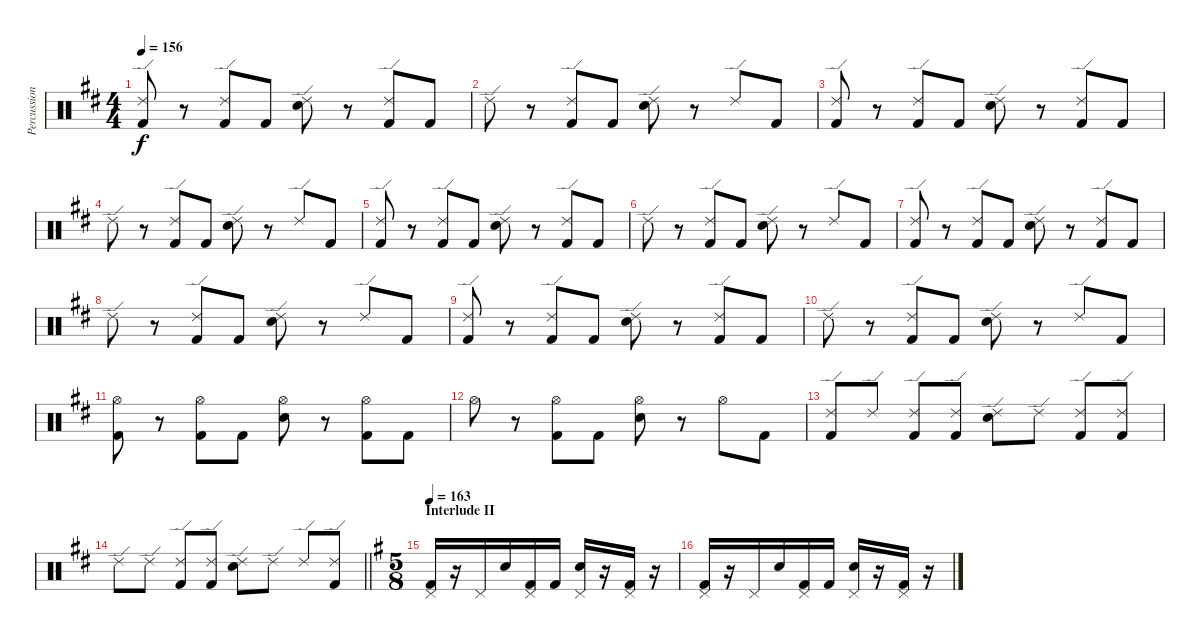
\track ("Percussion" "Percussion") {instrument percussion}
\staff {score}
\articulation defaults
\ts (4 4)
\tempo 156
\clef neutral
\ks d
("Ride (edge) 2" "Kick (hit) 2").8{dy f} r.8 ("Ride (edge) 2" "Kick (hit) 2").8 "Kick (hit) 2".8 ("Ride (edge) 2" "Electric Snare (hit)").8 r.8 ("Ride (edge) 2" "Kick (hit) 2").8 "Kick (hit) 2".8 |
"Ride (edge) 2".8 r.8 ("Ride (edge) 2" "Kick (hit) 2").8 "Kick (hit) 2".8 ("Ride (edge) 2" "Electric Snare (hit)").8 r.8 "Ride (edge) 2".8 "Kick (hit) 2".8 |
("Ride (edge) 2" "Kick (hit) 2").8 r.8 ("Ride (edge) 2" "Kick (hit) 2").8 "Kick (hit) 2".8 ("Ride (edge) 2" "Electric Snare (hit)").8 r.8 ("Ride (edge) 2" "Kick (hit) 2").8 "Kick (hit) 2".8 |
"Ride (edge) 2".8 r.8 ("Ride (edge) 2" "Kick (hit) 2").8 "Kick (hit) 2".8 ("Ride (edge) 2" "Electric Snare (hit)").8 r.8 "Ride (edge) 2".8 "Kick (hit) 2".8 |
("Ride (edge) 2" "Kick (hit) 2").8 r.8 ("Ride (edge) 2" "Kick (hit) 2").8 "Kick (hit) 2".8 ("Ride (edge) 2" "Electric Snare (hit)").8 r.8 ("Ride (edge) 2" "Kick (hit) 2").8 "Kick (hit) 2".8 |
"Ride (edge) 2".8 r.8 ("Ride (edge) 2" "Kick (hit) 2").8 "Kick (hit) 2".8 ("Ride (edge) 2" "Electric Snare (hit)").8 r.8 "Ride (edge) 2".8 "Kick (hit) 2".8 |
("Ride (edge) 2" "Kick (hit) 2").8 r.8 ("Ride (edge) 2" "Kick (hit) 2").8 "Kick (hit) 2".8 ("Ride (edge) 2" "Electric Snare (hit)").8 r.8 ("Ride (edge) 2" "Kick (hit) 2").8 "Kick (hit) 2".8 |
"Ride (edge) 2".8 r.8 ("Ride (edge) 2" "Kick (hit) 2").8 "Kick (hit) 2".8 ("Ride (edge) 2" "Electric Snare (hit)").8 r.8 "Ride (edge) 2".8 "Kick (hit) 2".8 |
("Ride (edge) 2" "Kick (hit) 2").8 r.8 ("Ride (edge) 2" "Kick (hit) 2").8 "Kick (hit) 2".8 ("Ride (edge) 2" "Electric Snare (hit)").8 r.8 ("Ride (edge) 2" "Kick (hit) 2").8 "Kick (hit) 2".8 |
"Ride (edge) 2".8 r.8 ("Ride (edge) 2" "Kick (hit) 2").8 "Kick (hit) 2".8 ("Ride (edge) 2" "Electric Snare (hit)").8 r.8 "Ride (edge) 2".8 "Kick (hit) 2".8 |
("Hi-Hat (open)" "Kick (hit) 2").8 r.8 ("Hi-Hat (open)" "Kick (hit) 2").8 "Kick (hit) 2".8 ("Hi-Hat (open)" "Electric Snare (hit)").8 r.8 ("Hi-Hat (open)" "Kick (hit) 2").8 "Kick (hit) 2".8 |
"Hi-Hat (open)".8 r.8 ("Hi-Hat (open)" "Kick (hit) 2").8 "Kick (hit) 2".8 ("Hi-Hat (open)" "Electric Snare (hit)").8 r.8 "Hi-Hat (open)".8 "Kick (hit) 2".8 |
("Ride (edge) 2" "Kick (hit) 2").8 "Ride (edge) 2".8 ("Ride (edge) 2" "Kick (hit) 2").8 ("Ride (edge) 2" "Kick (hit) 2").8 ("Ride (edge) 2" "Electric Snare (hit)").8 "Ride (edge) 2".8 ("Ride (edge) 2" "Kick (hit) 2").8 ("Ride (edge) 2" "Kick (hit) 2").8 |
\barLineRight lightlight "Ride (edge) 2".8 "Ride (edge) 2".8
("Ride (edge) 2" "Kick (hit) 2").8 ("Ride (edge) 2" "Kick (hit) 2").8 ("Ride (edge) 2" "Electric Snare (hit)").8 "Ride (edge) 2".8 "Ride (edge) 2".8 ("Ride (edge) 2" "Kick (hit) 2").8 |
\ts (5 8)
\section ("" "Interlude II")
\tempo 163
\ks g
("Pedal Hi-Hat (hit)" "Kick (hit) 2").16 r.16 "Pedal Hi-Hat (hit)".16 "Electric Snare (hit)".16 ("Pedal Hi-Hat (hit)" "Kick (hit) 2").16 "Kick (hit) 2".16 ("Pedal Hi-Hat (hit)" "Electric Snare (hit)").16 r.16 ("Pedal Hi-Hat (hit)" "Kick (hit) 2").16 r.16 |
("Pedal Hi-Hat (hit)" "Kick (hit) 2").16 r.16 "Pedal Hi-Hat (hit)".16 "Electric Snare (hit)".16 ("Pedal Hi-Hat (hit)" "Kick (hit) 2").16 "Kick (hit) 2".16 ("Pedal Hi-Hat (hit)" "Electric Snare (hit)").16 r.16 ("Pedal Hi-Hat (hit)" "Kick (hit) 2").16 r.16
